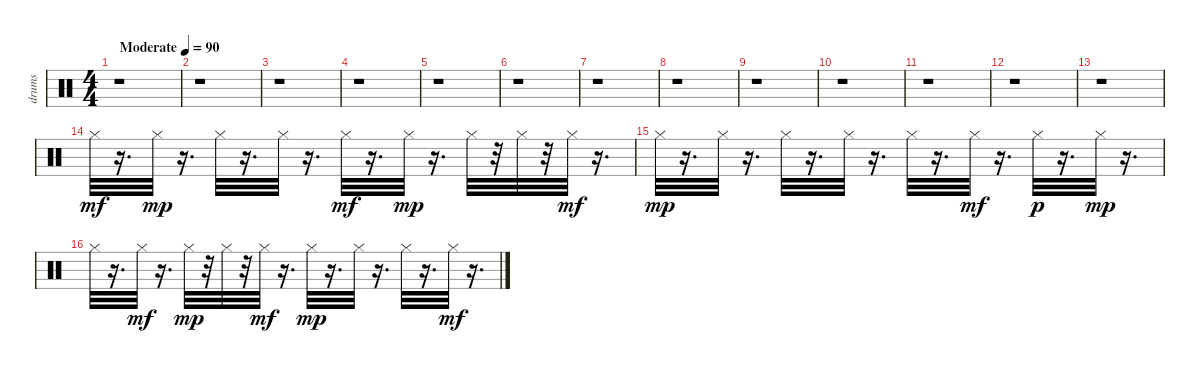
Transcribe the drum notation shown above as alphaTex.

\track ("drums" "drums") {instrument percussion}
\staff {score}
\articulation defaults
\ts (4 4)
\tempo (90 "Moderate")
\clef neutral
\ks c
r.1{dy mf} |
r.1 |
r.1 |
r.1 |
r.1 |
r.1 |
r.1 |
r.1 |
r.1 |
r.1 |
r.1 |
r.1 |
r.1 |
"Hi-Hat (closed)".32 r.16{d} "Hi-Hat (closed)".32{dy mp} r.16{d} "Hi-Hat (closed)".32 r.16{d} "Hi-Hat (closed)".32 r.16{d} "Hi-Hat (closed)".32{dy mf} r.16{d} "Hi-Hat (closed)".32{dy mp} r.16{d} "Hi-Hat (closed)".32 r.32 "Hi-Hat (closed)".32 r.32 "Hi-Hat (closed)".32{dy mf} r.16{d} |
"Hi-Hat (closed)".32{dy mp} r.16{d} "Hi-Hat (closed)".32 r.16{d} "Hi-Hat (closed)".32 r.16{d} "Hi-Hat (closed)".32 r.16{d} "Hi-Hat (closed)".32 r.16{d} "Hi-Hat (closed)".32{dy mf} r.16{d} "Hi-Hat (closed)".32{dy p} r.16{d} "Hi-Hat (closed)".32{dy mp} r.16{d} |
"Hi-Hat (closed)".32 r.16{d} "Hi-Hat (closed)".32{dy mf} r.16{d} "Hi-Hat (closed)".32{dy mp} r.32 "Hi-Hat (closed)".32 r.32 "Hi-Hat (closed)".32{dy mf} r.16{d} "Hi-Hat (closed)".32{dy mp} r.16{d} "Hi-Hat (closed)".32 r.16{d} "Hi-Hat (closed)".32 r.16{d} "Hi-Hat (closed)".32{dy mf} r.16{d}
